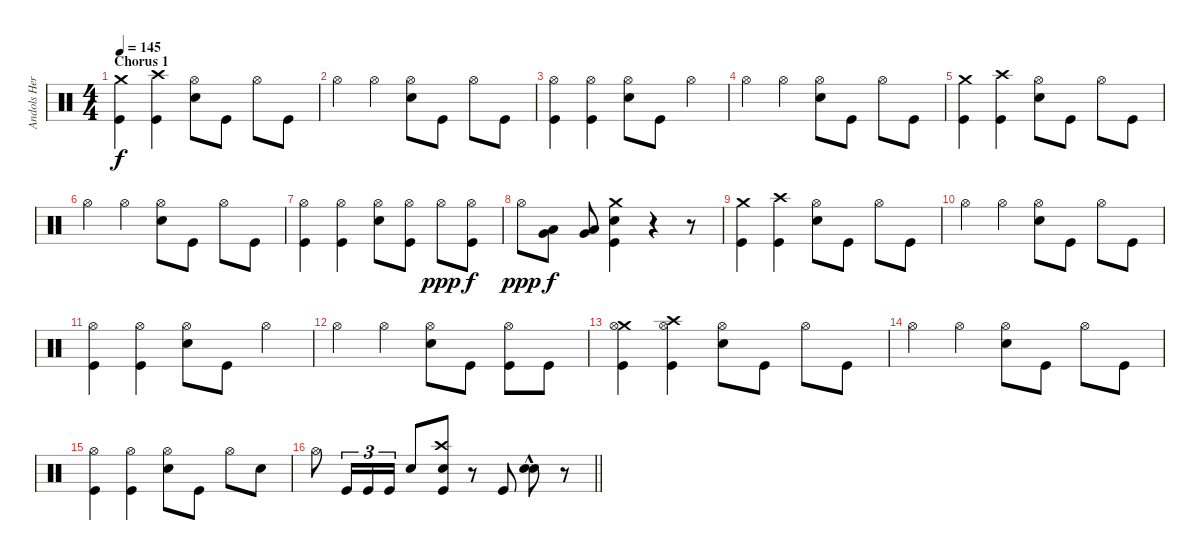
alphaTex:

\track ("Andols Herrick" "Andols Her") {instrument percussion}
\staff
\articulation defaults
\ts (4 4)
\section ("" "Chorus 1")
\tempo 145
\clef neutral
\ks c
("Crash medium (hit)" "Kick (hit)").4{dy f} ("Crash high (hit)" "Kick (hit)").4 ("Hi-Hat (open)" "Electric Snare (hit)").8 "Kick (hit)".8 "Hi-Hat (open)".8 "Kick (hit)".8 |
"Hi-Hat (open)".4 "Hi-Hat (open)".4 ("Hi-Hat (open)" "Electric Snare (hit)").8 "Kick (hit)".8 "Hi-Hat (open)".8 "Kick (hit)".8 |
("Hi-Hat (open)" "Kick (hit)").4 ("Hi-Hat (open)" "Kick (hit)").4 ("Hi-Hat (open)" "Electric Snare (hit)").8 "Kick (hit)".8 "Hi-Hat (open)".4 |
"Hi-Hat (open)".4 "Hi-Hat (open)".4 ("Hi-Hat (open)" "Electric Snare (hit)").8 "Kick (hit)".8 "Hi-Hat (open)".8 "Kick (hit)".8 |
("Crash medium (hit)" "Kick (hit)").4 ("Crash high (hit)" "Kick (hit)").4 ("Hi-Hat (open)" "Electric Snare (hit)").8 "Kick (hit)".8 "Hi-Hat (open)".8 "Kick (hit)".8 |
"Hi-Hat (open)".4 "Hi-Hat (open)".4 ("Hi-Hat (open)" "Electric Snare (hit)").8 "Kick (hit)".8 "Hi-Hat (open)".8 "Kick (hit)".8 |
("Hi-Hat (open)" "Kick (hit)").4 ("Hi-Hat (open)" "Kick (hit)").4 ("Hi-Hat (open)" "Electric Snare (hit)").8 ("Hi-Hat (open)" "Kick (hit)").8 "Hi-Hat (open)".8{dy ppp} ("Hi-Hat (open)" "Kick (hit)").8{dy f} |
"Hi-Hat (open)".8{dy ppp} ("Low Tom (hit)" "Very Low Tom (hit)").8{dy f} ("Very Low Tom (hit)" "Low Floor Tom (hit)").8 ("Crash medium (hit)" "Electric Snare (hit)" "Kick (hit)").4 r.4 r.8 |
("Crash medium (hit)" "Kick (hit)").4 ("Crash high (hit)" "Kick (hit)").4 ("Hi-Hat (open)" "Electric Snare (hit)").8 "Kick (hit)".8 "Hi-Hat (open)".8 "Kick (hit)".8 |
"Hi-Hat (open)".4 "Hi-Hat (open)".4 ("Hi-Hat (open)" "Electric Snare (hit)").8 "Kick (hit)".8 "Hi-Hat (open)".8 "Kick (hit)".8 |
("Hi-Hat (open)" "Kick (hit)").4 ("Hi-Hat (open)" "Kick (hit)").4 ("Hi-Hat (open)" "Electric Snare (hit)").8 "Kick (hit)".8 "Hi-Hat (open)".4 |
"Hi-Hat (open)".4 "Hi-Hat (open)".4 ("Hi-Hat (open)" "Electric Snare (hit)").8 "Kick (hit)".8 ("Hi-Hat (open)" "Kick (hit)").8 "Kick (hit)".8 |
("Crash medium (hit)" "Hi-Hat (open)" "Kick (hit)").4 ("Crash high (hit)" "Hi-Hat (open)" "Kick (hit)").4 ("Hi-Hat (open)" "Electric Snare (hit)").8 "Kick (hit)".8 "Hi-Hat (open)".8 "Kick (hit)".8 |
"Hi-Hat (open)".4 "Hi-Hat (open)".4 ("Hi-Hat (open)" "Electric Snare (hit)").8 "Kick (hit)".8 "Hi-Hat (open)".8 "Kick (hit)".8 |
("Hi-Hat (open)" "Kick (hit)").4 ("Hi-Hat (open)" "Kick (hit)").4 ("Hi-Hat (open)" "Electric Snare (hit)").8 "Kick (hit)".8 "Hi-Hat (open)".8 "Electric Snare (hit)".8 |
\barLineRight lightlight "Hi-Hat (open)".8 "Kick (hit)".16{tu (3 2)} "Kick (hit)".16{tu (3 2)} "Kick (hit)".16{tu (3 2)} "Electric Snare (hit)".8
("Crash high (hit)" "Electric Snare (hit)" "Kick (hit)").8 r.8 "Kick (hit)".8 ("Electric Snare (hit)" "Electric Snare (hit)"{hac}).8 r.8
